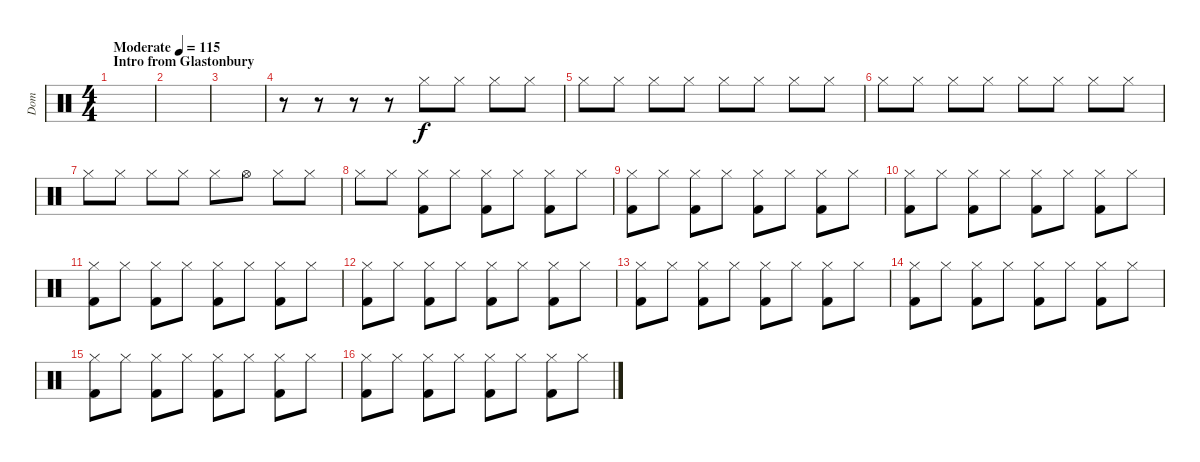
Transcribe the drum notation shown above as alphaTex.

\track ("Dom" "Dom") {instrument percussion}
\staff {score}
\articulation defaults
\ts (4 4)
\section ("" "Intro from Glastonbury")
\tempo (115 "Moderate")
\tempo 165
\tempo (115 "Moderate")
\clef neutral
\ks c
|
|
|
r.8 r.8 r.8 r.8 "Hi-Hat (closed)".8 "Hi-Hat (closed)".8 "Hi-Hat (closed)".8 "Hi-Hat (closed)".8 |
"Hi-Hat (closed)".8 "Hi-Hat (closed)".8 "Hi-Hat (closed)".8 "Hi-Hat (closed)".8 "Hi-Hat (closed)".8 "Hi-Hat (closed)".8 "Hi-Hat (closed)".8 "Hi-Hat (closed)".8 |
"Hi-Hat (closed)".8 "Hi-Hat (closed)".8 "Hi-Hat (closed)".8 "Hi-Hat (closed)".8 "Hi-Hat (closed)".8 "Hi-Hat (closed)".8 "Hi-Hat (closed)".8 "Hi-Hat (closed)".8 |
"Hi-Hat (closed)".8 "Hi-Hat (closed)".8 "Hi-Hat (closed)".8 "Hi-Hat (closed)".8 "Hi-Hat (closed)".8 "Hi-Hat (open)".8 "Hi-Hat (closed)".8 "Hi-Hat (closed)".8 |
"Hi-Hat (closed)".8 "Hi-Hat (closed)".8 ("Hi-Hat (closed)" "Kick (hit) 2").8 "Hi-Hat (closed)".8 ("Hi-Hat (closed)" "Kick (hit) 2").8 "Hi-Hat (closed)".8 ("Hi-Hat (closed)" "Kick (hit) 2").8 "Hi-Hat (closed)".8 |
("Hi-Hat (closed)" "Kick (hit) 2").8 "Hi-Hat (closed)".8 ("Hi-Hat (closed)" "Kick (hit) 2").8 "Hi-Hat (closed)".8 ("Hi-Hat (closed)" "Kick (hit) 2").8 "Hi-Hat (closed)".8 ("Hi-Hat (closed)" "Kick (hit) 2").8 "Hi-Hat (closed)".8 |
("Hi-Hat (closed)" "Kick (hit) 2").8 "Hi-Hat (closed)".8 ("Hi-Hat (closed)" "Kick (hit) 2").8 "Hi-Hat (closed)".8 ("Hi-Hat (closed)" "Kick (hit) 2").8 "Hi-Hat (closed)".8 ("Hi-Hat (closed)" "Kick (hit) 2").8 "Hi-Hat (closed)".8 |
("Hi-Hat (closed)" "Kick (hit) 2").8 "Hi-Hat (closed)".8 ("Hi-Hat (closed)" "Kick (hit) 2").8 "Hi-Hat (closed)".8 ("Hi-Hat (closed)" "Kick (hit) 2").8 "Hi-Hat (closed)".8 ("Hi-Hat (closed)" "Kick (hit) 2").8 "Hi-Hat (closed)".8 |
("Hi-Hat (closed)" "Kick (hit) 2").8 "Hi-Hat (closed)".8 ("Hi-Hat (closed)" "Kick (hit) 2").8 "Hi-Hat (closed)".8 ("Hi-Hat (closed)" "Kick (hit) 2").8 "Hi-Hat (closed)".8 ("Hi-Hat (closed)" "Kick (hit) 2").8 "Hi-Hat (closed)".8 |
("Hi-Hat (closed)" "Kick (hit) 2").8 "Hi-Hat (closed)".8 ("Hi-Hat (closed)" "Kick (hit) 2").8 "Hi-Hat (closed)".8 ("Hi-Hat (closed)" "Kick (hit) 2").8 "Hi-Hat (closed)".8 ("Hi-Hat (closed)" "Kick (hit) 2").8 "Hi-Hat (closed)".8 |
("Hi-Hat (closed)" "Kick (hit) 2").8 "Hi-Hat (closed)".8 ("Hi-Hat (closed)" "Kick (hit) 2").8 "Hi-Hat (closed)".8 ("Hi-Hat (closed)" "Kick (hit) 2").8 "Hi-Hat (closed)".8 ("Hi-Hat (closed)" "Kick (hit) 2").8 "Hi-Hat (closed)".8 |
("Hi-Hat (closed)" "Kick (hit) 2").8 "Hi-Hat (closed)".8 ("Hi-Hat (closed)" "Kick (hit) 2").8 "Hi-Hat (closed)".8 ("Hi-Hat (closed)" "Kick (hit) 2").8 "Hi-Hat (closed)".8 ("Hi-Hat (closed)" "Kick (hit) 2").8 "Hi-Hat (closed)".8 |
("Hi-Hat (closed)" "Kick (hit) 2").8 "Hi-Hat (closed)".8 ("Hi-Hat (closed)" "Kick (hit) 2").8 "Hi-Hat (closed)".8 ("Hi-Hat (closed)" "Kick (hit) 2").8 "Hi-Hat (closed)".8 ("Hi-Hat (closed)" "Kick (hit) 2").8 "Hi-Hat (closed)".8
